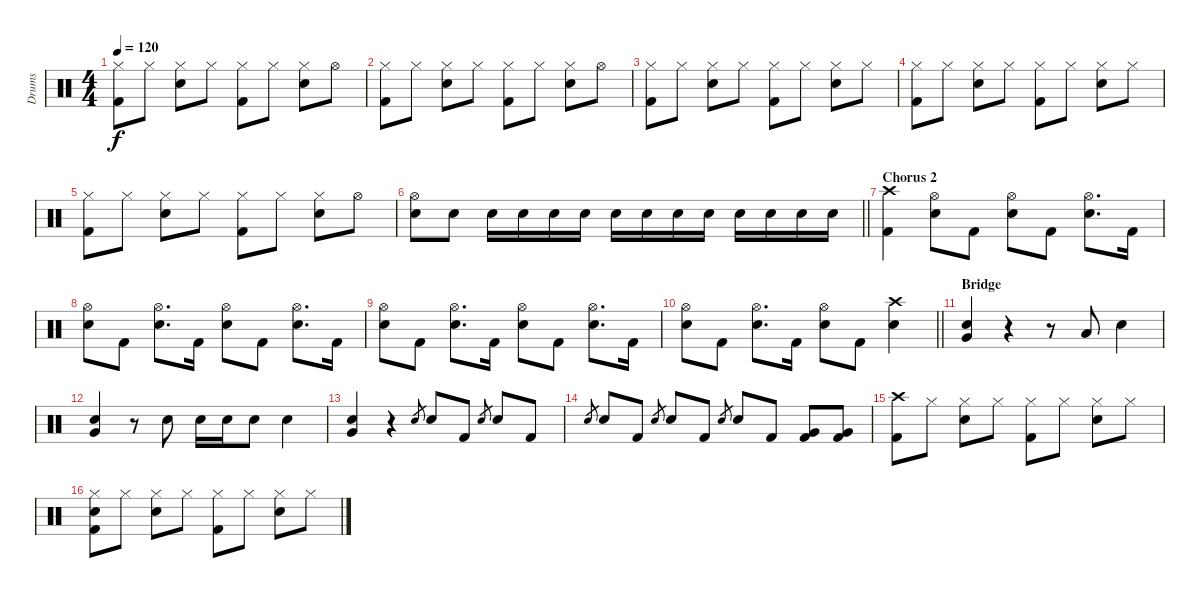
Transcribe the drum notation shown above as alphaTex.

\track ("Drums" "Drums") {instrument percussion}
\staff {score}
\articulation defaults
\ts (4 4)
\tempo 120
\clef neutral
\ks c
("Hi-Hat (closed)" "Kick (hit) 2").8{dy f} "Hi-Hat (closed)".8 ("Hi-Hat (closed)" "Snare (hit) 2").8 "Hi-Hat (closed)".8 ("Hi-Hat (closed)" "Kick (hit) 2").8 "Hi-Hat (closed)".8 ("Hi-Hat (closed)" "Snare (hit) 2").8 "Hi-Hat (open)".8 |
("Hi-Hat (closed)" "Kick (hit) 2").8 "Hi-Hat (closed)".8 ("Hi-Hat (closed)" "Snare (hit) 2").8 "Hi-Hat (closed)".8 ("Hi-Hat (closed)" "Kick (hit) 2").8 "Hi-Hat (closed)".8 ("Hi-Hat (closed)" "Snare (hit) 2").8 "Hi-Hat (open)".8 |
("Hi-Hat (closed)" "Kick (hit) 2").8 "Hi-Hat (closed)".8 ("Hi-Hat (closed)" "Snare (hit) 2").8 "Hi-Hat (closed)".8 ("Hi-Hat (closed)" "Kick (hit) 2").8 "Hi-Hat (closed)".8 ("Hi-Hat (closed)" "Snare (hit) 2").8 "Hi-Hat (closed)".8 |
("Hi-Hat (closed)" "Kick (hit) 2").8 "Hi-Hat (closed)".8 ("Hi-Hat (closed)" "Snare (hit) 2").8 "Hi-Hat (closed)".8 ("Hi-Hat (closed)" "Kick (hit) 2").8 "Hi-Hat (closed)".8 ("Hi-Hat (closed)" "Snare (hit) 2").8 "Hi-Hat (closed)".8 |
("Hi-Hat (closed)" "Kick (hit) 2").8 "Hi-Hat (closed)".8 ("Hi-Hat (closed)" "Snare (hit) 2").8 "Hi-Hat (closed)".8 ("Hi-Hat (closed)" "Kick (hit) 2").8 "Hi-Hat (closed)".8 ("Hi-Hat (closed)" "Snare (hit) 2").8 "Hi-Hat (open)".8 |
\barLineRight lightlight
("Hi-Hat (open)" "Snare (hit) 2").8 "Snare (hit) 2".8 "Snare (hit) 2".16 "Snare (hit) 2".16 "Snare (hit) 2".16 "Snare (hit) 2".16 "Snare (hit) 2".16 "Snare (hit) 2".16 "Snare (hit) 2".16 "Snare (hit) 2".16 "Snare (hit) 2".16 "Snare (hit) 2".16 "Snare (hit) 2".16 "Snare (hit) 2".16 |
\section ("" "Chorus 2")
("Crash high (hit)" "Kick (hit) 2").4 ("Hi-Hat (open)" "Snare (hit) 2").8 "Kick (hit) 2".8 ("Hi-Hat (open)" "Snare (hit) 2").8 "Kick (hit) 2".8 ("Hi-Hat (open)" "Snare (hit) 2").8{d} "Kick (hit) 2".16 |
("Hi-Hat (open)" "Snare (hit) 2").8 "Kick (hit) 2".8 ("Hi-Hat (open)" "Snare (hit) 2").8{d} "Kick (hit) 2".16 ("Hi-Hat (open)" "Snare (hit) 2").8 "Kick (hit) 2".8 ("Hi-Hat (open)" "Snare (hit) 2").8{d} "Kick (hit) 2".16 |
("Hi-Hat (open)" "Snare (hit) 2").8 "Kick (hit) 2".8 ("Hi-Hat (open)" "Snare (hit) 2").8{d} "Kick (hit) 2".16 ("Hi-Hat (open)" "Snare (hit) 2").8 "Kick (hit) 2".8 ("Hi-Hat (open)" "Snare (hit) 2").8{d} "Kick (hit) 2".16 |
\barLineRight lightlight
("Hi-Hat (open)" "Snare (hit) 2").8 "Kick (hit) 2".8 ("Hi-Hat (open)" "Snare (hit) 2").8{d} "Kick (hit) 2".16 ("Hi-Hat (open)" "Snare (hit) 2").8 "Kick (hit) 2".8 ("Crash high (hit)" "Snare (hit) 2").4 |
\section ("" "Bridge")
("Snare (hit) 2" "Very Low Tom (hit)").4 r.4 r.8 "Low Tom (hit)".8 "Snare (hit) 2".4 |
("Snare (hit) 2" "Very Low Tom (hit)").4 r.8 "Snare (hit) 2".8 "Snare (hit) 2".16 "Snare (hit) 2".16 "Snare (hit) 2".8 "Snare (hit) 2".4 |
("Snare (hit) 2" "Very Low Tom (hit)").4 r.4 "Snare (hit) 2".8{gr} "Snare (hit) 2".8 "Kick (hit) 2".8 "Snare (hit) 2".8{gr} "Snare (hit) 2".8 "Kick (hit) 2".8 |
"Snare (hit) 2".8{gr} "Snare (hit) 2".8 "Kick (hit) 2".8 "Snare (hit) 2".8{gr} "Snare (hit) 2".8 "Kick (hit) 2".8 "Snare (hit) 2".8{gr} "Snare (hit) 2".8 "Kick (hit) 2".8 ("Very Low Tom (hit)" "Kick (hit) 2").8 ("Very Low Tom (hit)" "Kick (hit) 2").8 |
("Crash high (hit)" "Kick (hit) 2").8 "Hi-Hat (closed)".8 ("Hi-Hat (closed)" "Snare (hit) 2").8 "Hi-Hat (closed)".8 ("Hi-Hat (closed)" "Kick (hit) 2").8 "Hi-Hat (closed)".8 ("Hi-Hat (closed)" "Snare (hit) 2").8 "Hi-Hat (closed)".8 |
("Hi-Hat (closed)" "Snare (hit) 2" "Kick (hit) 2").8 "Hi-Hat (closed)".8 ("Hi-Hat (closed)" "Snare (hit) 2").8 "Hi-Hat (closed)".8 ("Hi-Hat (closed)" "Kick (hit) 2").8 "Hi-Hat (closed)".8 ("Hi-Hat (closed)" "Snare (hit) 2").8 "Hi-Hat (closed)".8
